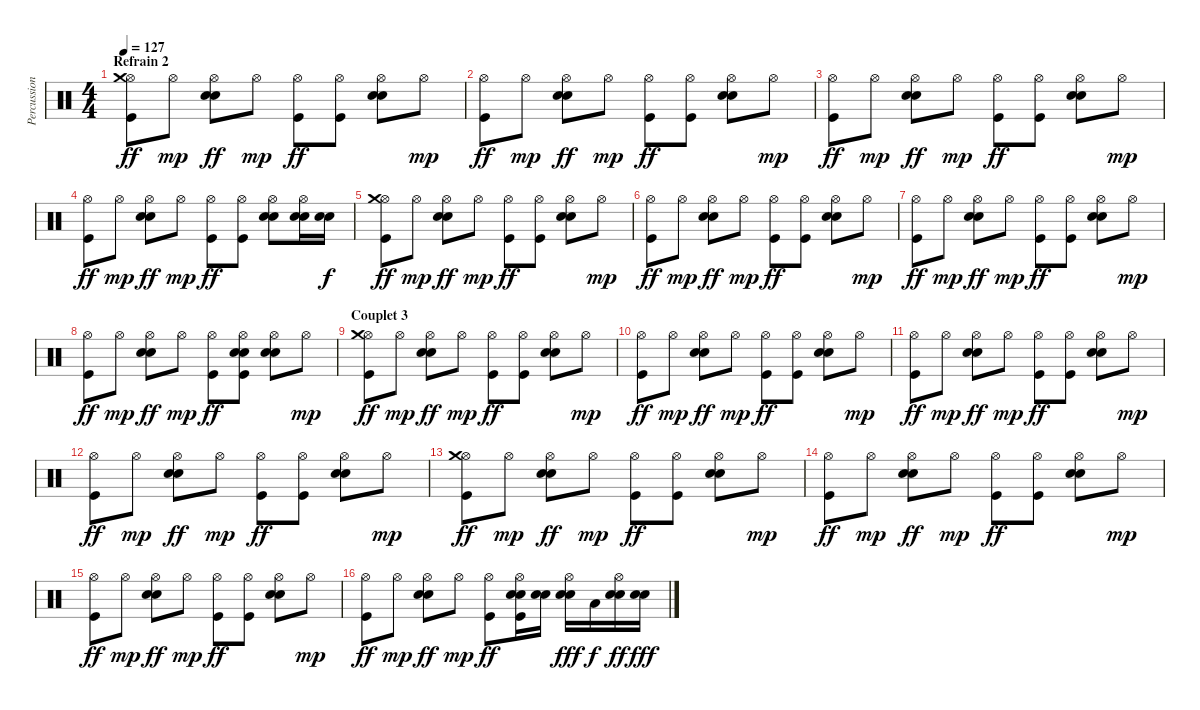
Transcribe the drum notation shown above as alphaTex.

\track ("Percussions" "Percussion") {instrument percussion}
\staff {score}
\articulation defaults
\ts (4 4)
\section ("" "Refrain 2")
\tempo 127
\clef neutral
\ks c
("Hi-Hat (open)" "Crash medium (hit)" "Kick (hit)").8{dy ff} "Hi-Hat (open)".8{dy mp} ("Hi-Hat (open)" "Snare (hit) 2" "Electric Snare (hit)").8{dy ff} "Hi-Hat (open)".8{dy mp} ("Hi-Hat (open)" "Kick (hit)").8{dy ff} ("Hi-Hat (open)" "Kick (hit)").8 ("Hi-Hat (open)" "Snare (hit) 2" "Electric Snare (hit)").8 "Hi-Hat (open)".8{dy mp} |
("Hi-Hat (open)" "Kick (hit)").8{dy ff} "Hi-Hat (open)".8{dy mp} ("Hi-Hat (open)" "Snare (hit) 2" "Electric Snare (hit)").8{dy ff} "Hi-Hat (open)".8{dy mp} ("Hi-Hat (open)" "Kick (hit)").8{dy ff} ("Hi-Hat (open)" "Kick (hit)").8 ("Hi-Hat (open)" "Snare (hit) 2" "Electric Snare (hit)").8 "Hi-Hat (open)".8{dy mp} |
("Hi-Hat (open)" "Kick (hit)").8{dy ff} "Hi-Hat (open)".8{dy mp} ("Hi-Hat (open)" "Snare (hit) 2" "Electric Snare (hit)").8{dy ff} "Hi-Hat (open)".8{dy mp} ("Hi-Hat (open)" "Kick (hit)").8{dy ff} ("Hi-Hat (open)" "Kick (hit)").8 ("Hi-Hat (open)" "Snare (hit) 2" "Electric Snare (hit)").8 "Hi-Hat (open)".8{dy mp} |
("Hi-Hat (open)" "Kick (hit)").8{dy ff} "Hi-Hat (open)".8{dy mp} ("Hi-Hat (open)" "Snare (hit) 2" "Electric Snare (hit)").8{dy ff} "Hi-Hat (open)".8{dy mp} ("Hi-Hat (open)" "Kick (hit)").8{dy ff} ("Hi-Hat (open)" "Kick (hit)").8 ("Hi-Hat (open)" "Snare (hit) 2" "Electric Snare (hit)").8 ("Hi-Hat (open)" "Snare (hit) 2" "Electric Snare (hit)").16 ("Snare (hit) 2" "Electric Snare (hit)").16{dy f} |
("Hi-Hat (open)" "Crash medium (hit)" "Kick (hit)").8{dy ff} "Hi-Hat (open)".8{dy mp} ("Hi-Hat (open)" "Snare (hit) 2" "Electric Snare (hit)").8{dy ff} "Hi-Hat (open)".8{dy mp} ("Hi-Hat (open)" "Kick (hit)").8{dy ff} ("Hi-Hat (open)" "Kick (hit)").8 ("Hi-Hat (open)" "Snare (hit) 2" "Electric Snare (hit)").8 "Hi-Hat (open)".8{dy mp} |
("Hi-Hat (open)" "Kick (hit)").8{dy ff} "Hi-Hat (open)".8{dy mp} ("Hi-Hat (open)" "Snare (hit) 2" "Electric Snare (hit)").8{dy ff} "Hi-Hat (open)".8{dy mp} ("Hi-Hat (open)" "Kick (hit)").8{dy ff} ("Hi-Hat (open)" "Kick (hit)").8 ("Hi-Hat (open)" "Snare (hit) 2" "Electric Snare (hit)").8 "Hi-Hat (open)".8{dy mp} |
("Hi-Hat (open)" "Kick (hit)").8{dy ff} "Hi-Hat (open)".8{dy mp} ("Hi-Hat (open)" "Snare (hit) 2" "Electric Snare (hit)").8{dy ff} "Hi-Hat (open)".8{dy mp} ("Hi-Hat (open)" "Kick (hit)").8{dy ff} ("Hi-Hat (open)" "Kick (hit)").8 ("Hi-Hat (open)" "Snare (hit) 2" "Electric Snare (hit)").8 "Hi-Hat (open)".8{dy mp} |
("Hi-Hat (open)" "Kick (hit)").8{dy ff} "Hi-Hat (open)".8{dy mp} ("Hi-Hat (open)" "Snare (hit) 2" "Electric Snare (hit)").8{dy ff} "Hi-Hat (open)".8{dy mp} ("Hi-Hat (open)" "Kick (hit)").8{dy ff} ("Hi-Hat (open)" "Snare (hit) 2" "Electric Snare (hit)" "Kick (hit)").8 ("Hi-Hat (open)" "Snare (hit) 2" "Electric Snare (hit)").8 "Hi-Hat (open)".8{dy mp} |
\section ("" "Couplet 3")
("Hi-Hat (open)" "Crash medium (hit)" "Kick (hit)").8{dy ff} "Hi-Hat (open)".8{dy mp} ("Hi-Hat (open)" "Snare (hit) 2" "Electric Snare (hit)").8{dy ff} "Hi-Hat (open)".8{dy mp} ("Hi-Hat (open)" "Kick (hit)").8{dy ff} ("Hi-Hat (open)" "Kick (hit)").8 ("Hi-Hat (open)" "Snare (hit) 2" "Electric Snare (hit)").8 "Hi-Hat (open)".8{dy mp} |
("Hi-Hat (open)" "Kick (hit)").8{dy ff} "Hi-Hat (open)".8{dy mp} ("Hi-Hat (open)" "Snare (hit) 2" "Electric Snare (hit)").8{dy ff} "Hi-Hat (open)".8{dy mp} ("Hi-Hat (open)" "Kick (hit)").8{dy ff} ("Hi-Hat (open)" "Kick (hit)").8 ("Hi-Hat (open)" "Snare (hit) 2" "Electric Snare (hit)").8 "Hi-Hat (open)".8{dy mp} |
("Hi-Hat (open)" "Kick (hit)").8{dy ff} "Hi-Hat (open)".8{dy mp} ("Hi-Hat (open)" "Snare (hit) 2" "Electric Snare (hit)").8{dy ff} "Hi-Hat (open)".8{dy mp} ("Hi-Hat (open)" "Kick (hit)").8{dy ff} ("Hi-Hat (open)" "Kick (hit)").8 ("Hi-Hat (open)" "Snare (hit) 2" "Electric Snare (hit)").8 "Hi-Hat (open)".8{dy mp} |
("Hi-Hat (open)" "Kick (hit)").8{dy ff} "Hi-Hat (open)".8{dy mp} ("Hi-Hat (open)" "Snare (hit) 2" "Electric Snare (hit)").8{dy ff} "Hi-Hat (open)".8{dy mp} ("Hi-Hat (open)" "Kick (hit)").8{dy ff} ("Hi-Hat (open)" "Kick (hit)").8 ("Hi-Hat (open)" "Snare (hit) 2" "Electric Snare (hit)").8 "Hi-Hat (open)".8{dy mp} |
("Hi-Hat (open)" "Crash medium (hit)" "Kick (hit)").8{dy ff} "Hi-Hat (open)".8{dy mp} ("Hi-Hat (open)" "Snare (hit) 2" "Electric Snare (hit)").8{dy ff} "Hi-Hat (open)".8{dy mp} ("Hi-Hat (open)" "Kick (hit)").8{dy ff} ("Hi-Hat (open)" "Kick (hit)").8 ("Hi-Hat (open)" "Snare (hit) 2" "Electric Snare (hit)").8 "Hi-Hat (open)".8{dy mp} |
("Hi-Hat (open)" "Kick (hit)").8{dy ff} "Hi-Hat (open)".8{dy mp} ("Hi-Hat (open)" "Snare (hit) 2" "Electric Snare (hit)").8{dy ff} "Hi-Hat (open)".8{dy mp} ("Hi-Hat (open)" "Kick (hit)").8{dy ff} ("Hi-Hat (open)" "Kick (hit)").8 ("Hi-Hat (open)" "Snare (hit) 2" "Electric Snare (hit)").8 "Hi-Hat (open)".8{dy mp} |
("Hi-Hat (open)" "Kick (hit)").8{dy ff} "Hi-Hat (open)".8{dy mp} ("Hi-Hat (open)" "Snare (hit) 2" "Electric Snare (hit)").8{dy ff} "Hi-Hat (open)".8{dy mp} ("Hi-Hat (open)" "Kick (hit)").8{dy ff} ("Hi-Hat (open)" "Kick (hit)").8 ("Hi-Hat (open)" "Snare (hit) 2" "Electric Snare (hit)").8 "Hi-Hat (open)".8{dy mp} |
("Hi-Hat (open)" "Kick (hit)").8{dy ff} "Hi-Hat (open)".8{dy mp} ("Hi-Hat (open)" "Snare (hit) 2" "Electric Snare (hit)").8{dy ff} "Hi-Hat (open)".8{dy mp} ("Hi-Hat (open)" "Kick (hit)").8{dy ff} ("Hi-Hat (open)" "Snare (hit) 2" "Electric Snare (hit)" "Kick (hit)").16 ("Snare (hit) 2" "Electric Snare (hit)").16 ("Hi-Hat (open)" "Snare (hit) 2" "Electric Snare (hit)").16{dy fff} "Low Floor Tom (hit)".16{dy f} ("Hi-Hat (open)" "Snare (hit) 2" "Electric Snare (hit)").16{dy ff} ("Snare (hit) 2" "Electric Snare (hit)").16{dy fff}
